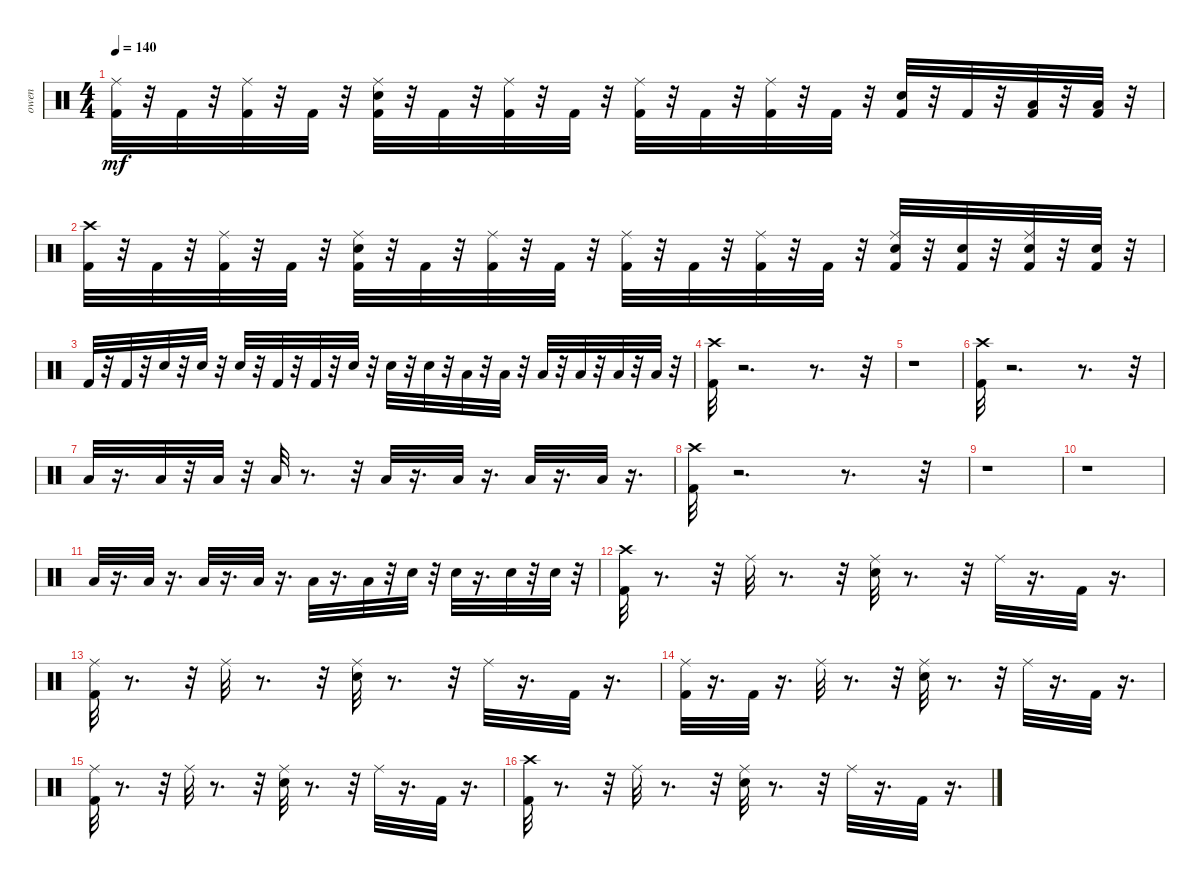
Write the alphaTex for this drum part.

\track ("owen" "owen") {instrument percussion}
\staff {score}
\articulation defaults
\ts (4 4)
\tempo 140
\clef neutral
\ks c
("Kick (hit) 2" "Ride (middle)").32{dy mf} r.32 "Kick (hit) 2".32 r.32 ("Kick (hit) 2" "Ride (middle)").32 r.32 "Kick (hit) 2".32 r.32 ("Kick (hit) 2" "Snare (hit) 2" "Ride (middle)").32 r.32 "Kick (hit) 2".32 r.32 ("Kick (hit) 2" "Ride (middle)").32 r.32 "Kick (hit) 2".32 r.32 ("Kick (hit) 2" "Ride (middle)").32 r.32 "Kick (hit) 2".32 r.32 ("Kick (hit) 2" "Ride (middle)").32 r.32 "Kick (hit) 2".32 r.32 ("Kick (hit) 2" "Snare (hit) 2").32 r.32 "Kick (hit) 2".32 r.32 ("Kick (hit) 2" "Low Floor Tom (hit)").32 r.32 ("Kick (hit) 2" "Low Floor Tom (hit)").32 r.32 |
("Kick (hit) 2" "Crash high (hit)").32 r.32 "Kick (hit) 2".32 r.32 ("Kick (hit) 2" "Ride (middle)").32 r.32 "Kick (hit) 2".32 r.32 ("Kick (hit) 2" "Snare (hit) 2" "Ride (middle)").32 r.32 "Kick (hit) 2".32 r.32 ("Kick (hit) 2" "Ride (middle)").32 r.32 "Kick (hit) 2".32 r.32 ("Kick (hit) 2" "Ride (middle)").32 r.32 "Kick (hit) 2".32 r.32 ("Kick (hit) 2" "Ride (middle)").32 r.32 "Kick (hit) 2".32 r.32 ("Kick (hit) 2" "Snare (hit) 2" "Ride (middle)").32 r.32 ("Kick (hit) 2" "Snare (hit) 2").32 r.32 ("Kick (hit) 2" "Ride (middle)" "Snare (hit) 2").32 r.32 ("Kick (hit) 2" "Snare (hit) 2").32 r.32 |
"Kick (hit) 2".32 r.32 "Kick (hit) 2".32 r.32 "Snare (hit) 2".32 r.32 "Snare (hit) 2".32 r.32 "Snare (hit) 2".32 r.32 "Kick (hit) 2".32 r.32 "Kick (hit) 2".32 r.32 "Snare (hit) 2".32 r.32 "Snare (hit) 2".32 r.32 "Snare (hit) 2".32 r.32 "Low Tom (hit)".32 r.32 "Low Tom (hit)".32 r.32 "Low Tom (hit)".32 r.32 "Low Tom (hit)".32 r.32 "Low Floor Tom (hit)".32 r.32 "Low Floor Tom (hit)".32 r.32 |
("Kick (hit) 2" "Crash high (hit)").32 r.2{d} r.8{d} r.32 |
r.1 |
("Crash high (hit)" "Kick (hit) 2").32 r.2{d} r.8{d} r.32 |
"Low Tom (hit)".32 r.16{d} "Low Tom (hit)".32 r.32 "Low Tom (hit)".32 r.32 "Low Tom (hit)".32 r.8{d} r.32 "Low Tom (hit)".32 r.16{d} "Low Tom (hit)".32 r.16{d} "Low Floor Tom (hit)".32 r.16{d} "Low Floor Tom (hit)".32 r.16{d} |
("Crash high (hit)" "Kick (hit) 2").32 r.2{d} r.8{d} r.32 |
r.1 |
r.1 |
"Low Tom (hit)".32 r.16{d} "Low Tom (hit)".32 r.16{d} "Low Floor Tom (hit)".32 r.16{d} "Low Floor Tom (hit)".32 r.16{d} "Low Floor Tom (hit)".32 r.16{d} "Low Floor Tom (hit)".32 r.32 "Snare (hit) 2".32 r.32 "Snare (hit) 2".32 r.16{d} "Snare (hit) 2".32 r.32 "Snare (hit) 2".32 r.32 |
("Kick (hit) 2" "Crash high (hit)").32 r.8{d} r.32 "Ride (middle)".32 r.8{d} r.32 ("Ride (middle)" "Snare (hit) 2").32 r.8{d} r.32 "Ride (middle)".32 r.16{d} "Kick (hit) 2".32 r.16{d} |
("Kick (hit) 2" "Ride (middle)").32 r.8{d} r.32 "Ride (middle)".32 r.8{d} r.32 ("Ride (middle)" "Snare (hit) 2").32 r.8{d} r.32 "Ride (middle)".32 r.16{d} "Kick (hit) 2".32 r.16{d} |
("Kick (hit) 2" "Ride (middle)").32 r.16{d} "Kick (hit) 2".32 r.16{d} "Ride (middle)".32 r.8{d} r.32 ("Ride (middle)" "Snare (hit) 2").32 r.8{d} r.32 "Ride (middle)".32 r.16{d} "Kick (hit) 2".32 r.16{d} |
("Kick (hit) 2" "Ride (middle)").32 r.8{d} r.32 "Ride (middle)".32 r.8{d} r.32 ("Ride (middle)" "Snare (hit) 2").32 r.8{d} r.32 "Ride (middle)".32 r.16{d} "Kick (hit) 2".32 r.16{d} |
("Kick (hit) 2" "Crash high (hit)").32 r.8{d} r.32 "Ride (middle)".32 r.8{d} r.32 ("Ride (middle)" "Snare (hit) 2").32 r.8{d} r.32 "Ride (middle)".32 r.16{d} "Kick (hit) 2".32 r.16{d}
